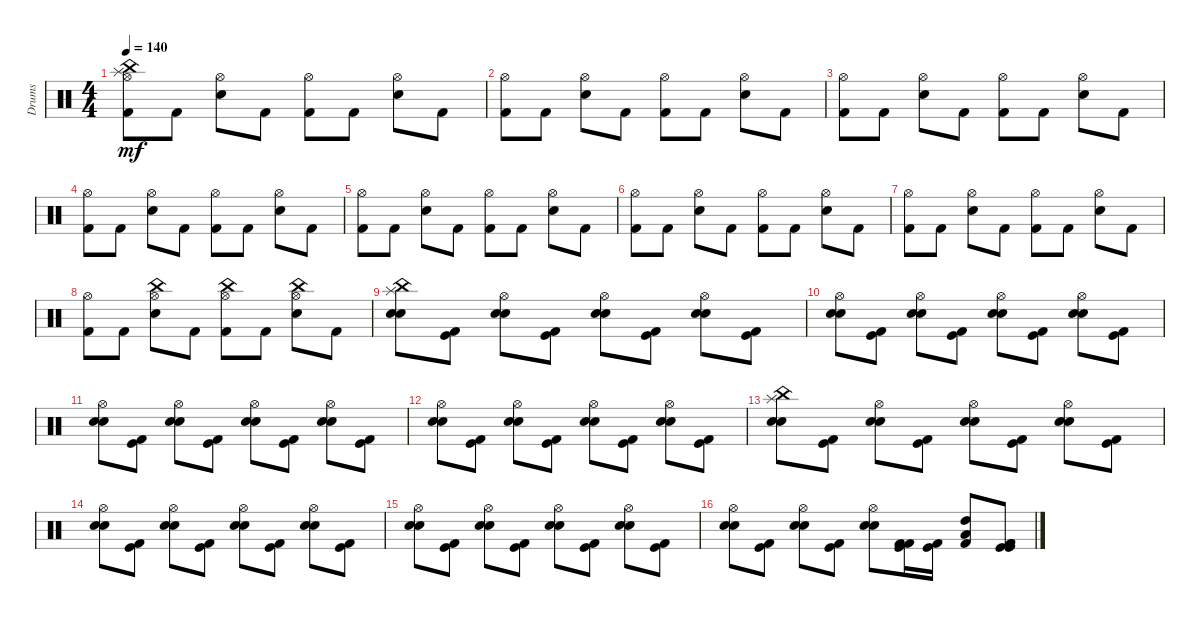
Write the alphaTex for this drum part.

\track ("Drums" "Drums") {instrument percussion}
\staff {score}
\articulation defaults
\ts (4 4)
\tempo 140
\clef neutral
\ks c
("Splash (hit)" "China (hit)" "Hi-Hat (open)" "Kick (hit) 2").8{dy mf} "Kick (hit) 2".8 ("Electric Snare (hit)" "Hi-Hat (open)").8 "Kick (hit) 2".8 ("Hi-Hat (open)" "Kick (hit) 2").8 "Kick (hit) 2".8 ("Hi-Hat (open)" "Electric Snare (hit)").8 "Kick (hit) 2".8 |
("Hi-Hat (open)" "Kick (hit) 2").8 "Kick (hit) 2".8 ("Hi-Hat (open)" "Electric Snare (hit)").8 "Kick (hit) 2".8 ("Hi-Hat (open)" "Kick (hit) 2").8 "Kick (hit) 2".8 ("Hi-Hat (open)" "Electric Snare (hit)").8 "Kick (hit) 2".8 |
("Hi-Hat (open)" "Kick (hit) 2").8 "Kick (hit) 2".8 ("Hi-Hat (open)" "Electric Snare (hit)").8 "Kick (hit) 2".8 ("Hi-Hat (open)" "Kick (hit) 2").8 "Kick (hit) 2".8 ("Hi-Hat (open)" "Electric Snare (hit)").8 "Kick (hit) 2".8 |
("Hi-Hat (open)" "Kick (hit) 2").8 "Kick (hit) 2".8 ("Hi-Hat (open)" "Electric Snare (hit)").8 "Kick (hit) 2".8 ("Hi-Hat (open)" "Kick (hit) 2").8 "Kick (hit) 2".8 ("Hi-Hat (open)" "Electric Snare (hit)").8 "Kick (hit) 2".8 |
("Hi-Hat (open)" "Kick (hit) 2").8 "Kick (hit) 2".8 ("Electric Snare (hit)" "Hi-Hat (open)").8 "Kick (hit) 2".8 ("Hi-Hat (open)" "Kick (hit) 2").8 "Kick (hit) 2".8 ("Hi-Hat (open)" "Electric Snare (hit)").8 "Kick (hit) 2".8 |
("Hi-Hat (open)" "Kick (hit) 2").8 "Kick (hit) 2".8 ("Electric Snare (hit)" "Hi-Hat (open)").8 "Kick (hit) 2".8 ("Hi-Hat (open)" "Kick (hit) 2").8 "Kick (hit) 2".8 ("Hi-Hat (open)" "Electric Snare (hit)").8 "Kick (hit) 2".8 |
("Hi-Hat (open)" "Kick (hit) 2").8 "Kick (hit) 2".8 ("Electric Snare (hit)" "Hi-Hat (open)").8 "Kick (hit) 2".8 ("Kick (hit) 2" "Hi-Hat (open)").8 "Kick (hit) 2".8 ("Hi-Hat (open)" "Electric Snare (hit)").8 "Kick (hit) 2".8 |
("Hi-Hat (open)" "Kick (hit) 2").8 "Kick (hit) 2".8 ("Electric Snare (hit)" "Hi-Hat (open)" "China (hit)").8 "Kick (hit) 2".8 ("China (hit)" "Kick (hit) 2" "Hi-Hat (open)").8 "Kick (hit) 2".8 ("Electric Snare (hit)" "Hi-Hat (open)" "China (hit)").8 "Kick (hit) 2".8 |
("Snare (hit) 2" "Electric Snare (hit)" "Splash (hit)" "China (hit)").8 ("Kick (hit) 2" "Kick (hit)").8 ("Snare (hit) 2" "Hi-Hat (open)" "Electric Snare (hit)").8 ("Kick (hit)" "Kick (hit) 2").8 ("Hi-Hat (open)" "Snare (hit) 2" "Electric Snare (hit)").8 ("Kick (hit)" "Kick (hit) 2").8 ("Electric Snare (hit)" "Snare (hit) 2" "Hi-Hat (open)").8 ("Kick (hit)" "Kick (hit) 2").8 |
("Hi-Hat (open)" "Snare (hit) 2" "Electric Snare (hit)").8 ("Kick (hit)" "Kick (hit) 2").8 ("Snare (hit) 2" "Hi-Hat (open)" "Electric Snare (hit)").8 ("Kick (hit)" "Kick (hit) 2").8 ("Hi-Hat (open)" "Electric Snare (hit)" "Snare (hit) 2").8 ("Kick (hit)" "Kick (hit) 2").8 ("Electric Snare (hit)" "Snare (hit) 2" "Hi-Hat (open)").8 ("Kick (hit)" "Kick (hit) 2").8 |
("Hi-Hat (open)" "Snare (hit) 2" "Electric Snare (hit)").8 ("Kick (hit) 2" "Kick (hit)").8 ("Snare (hit) 2" "Hi-Hat (open)" "Electric Snare (hit)").8 ("Kick (hit)" "Kick (hit) 2").8 ("Hi-Hat (open)" "Electric Snare (hit)" "Snare (hit) 2").8 ("Kick (hit)" "Kick (hit) 2").8 ("Electric Snare (hit)" "Snare (hit) 2" "Hi-Hat (open)").8 ("Kick (hit)" "Kick (hit) 2").8 |
("Hi-Hat (open)" "Snare (hit) 2" "Electric Snare (hit)").8 ("Kick (hit) 2" "Kick (hit)").8 ("Snare (hit) 2" "Hi-Hat (open)" "Electric Snare (hit)").8 ("Kick (hit)" "Kick (hit) 2").8 ("Hi-Hat (open)" "Snare (hit) 2" "Electric Snare (hit)").8 ("Kick (hit)" "Kick (hit) 2").8 ("Electric Snare (hit)" "Snare (hit) 2" "Hi-Hat (open)").8 ("Kick (hit)" "Kick (hit) 2").8 |
("Snare (hit) 2" "Electric Snare (hit)" "Splash (hit)" "China (hit)").8 ("Kick (hit)" "Kick (hit) 2").8 ("Hi-Hat (open)" "Electric Snare (hit)" "Snare (hit) 2").8 ("Kick (hit)" "Kick (hit) 2").8 ("Hi-Hat (open)" "Snare (hit) 2" "Electric Snare (hit)").8 ("Kick (hit)" "Kick (hit) 2").8 ("Electric Snare (hit)" "Snare (hit) 2" "Hi-Hat (open)").8 ("Kick (hit)" "Kick (hit) 2").8 |
("Hi-Hat (open)" "Snare (hit) 2" "Electric Snare (hit)").8 ("Kick (hit) 2" "Kick (hit)").8 ("Snare (hit) 2" "Hi-Hat (open)" "Electric Snare (hit)").8 ("Kick (hit)" "Kick (hit) 2").8 ("Hi-Hat (open)" "Electric Snare (hit)" "Snare (hit) 2").8 ("Kick (hit)" "Kick (hit) 2").8 ("Electric Snare (hit)" "Snare (hit) 2" "Hi-Hat (open)").8 ("Kick (hit)" "Kick (hit) 2").8 |
("Hi-Hat (open)" "Snare (hit) 2" "Electric Snare (hit)").8 ("Kick (hit)" "Kick (hit) 2").8 ("Snare (hit) 2" "Hi-Hat (open)" "Electric Snare (hit)").8 ("Kick (hit)" "Kick (hit) 2").8 ("Hi-Hat (open)" "Electric Snare (hit)" "Snare (hit) 2").8 ("Kick (hit)" "Kick (hit) 2").8 ("Electric Snare (hit)" "Snare (hit) 2" "Hi-Hat (open)").8 ("Kick (hit)" "Kick (hit) 2").8 |
("Hi-Hat (open)" "Snare (hit) 2" "Electric Snare (hit)").8 ("Kick (hit)" "Kick (hit) 2").8 ("Snare (hit) 2" "Hi-Hat (open)" "Electric Snare (hit)").8 ("Kick (hit) 2" "Kick (hit)").8 ("Electric Snare (hit)" "Snare (hit) 2" "Hi-Hat (open)").8 ("Kick (hit) 2" "Kick (hit)" "Kick (hit) 2").16 ("Kick (hit)" "Kick (hit) 2").16 ("Low Tom (hit)" "High Tom (hit)" "Kick (hit) 2").8 ("Kick (hit)" "Kick (hit) 2" "Kick (hit)" "Kick (hit) 2").8
